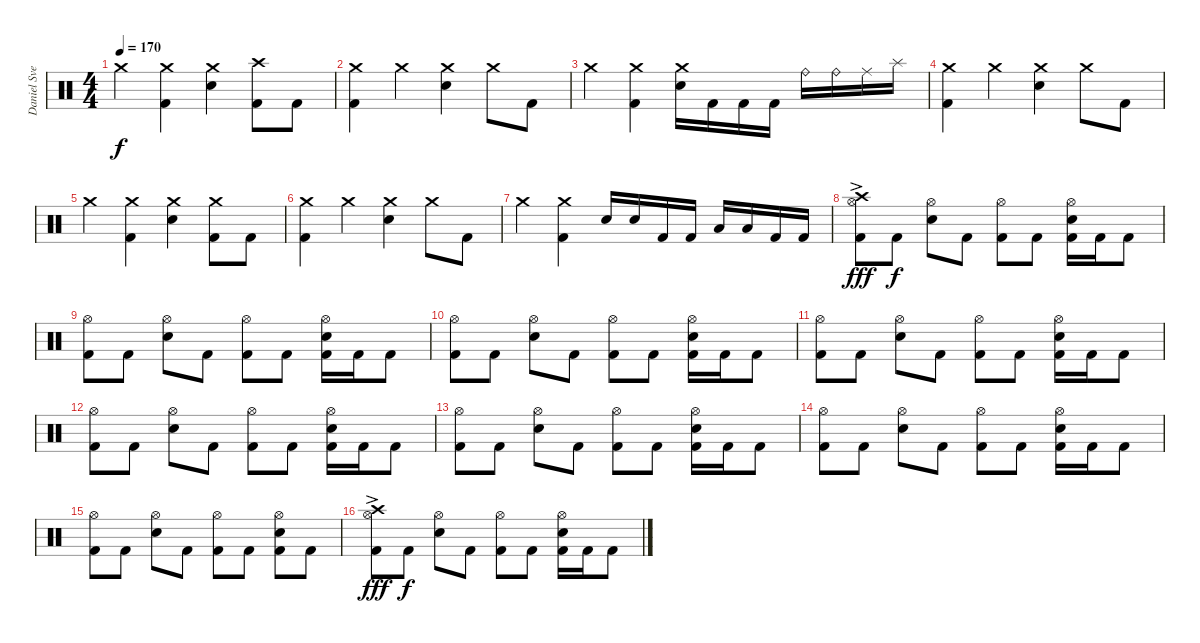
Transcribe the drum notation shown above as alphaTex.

\track ("Daniel Svensson" "Daniel Sve") {instrument percussion}
\staff {score}
\articulation defaults
\ts (4 4)
\tempo 170
\clef neutral
\ks c "Crash medium (hit)".4{dy f}
("Crash medium (hit)" "Kick (hit) 2").4 ("Crash medium (hit)" "Electric Snare (hit)").4 ("Crash high (hit)" "Kick (hit) 2").8 "Kick (hit) 2".8 |
("Crash medium (hit)" "Kick (hit) 2").4 "Crash medium (hit)".4 ("Crash medium (hit)" "Electric Snare (hit)").4 "Crash medium (hit)".8 "Kick (hit) 2".8 |
"Crash medium (hit)".4 ("Crash medium (hit)" "Kick (hit) 2").4 ("Crash medium (hit)" "Electric Snare (hit)").16 "Kick (hit) 2".16 "Kick (hit) 2".16 "Kick (hit) 2".16 "Ride (bell)".16 "Ride (bell)".16 "Ride (middle)".16 "Splash (hit)".16 |
("Crash medium (hit)" "Kick (hit) 2").4 "Crash medium (hit)".4 ("Crash medium (hit)" "Electric Snare (hit)").4 "Crash medium (hit)".8 "Kick (hit) 2".8 |
"Crash medium (hit)".4 ("Crash medium (hit)" "Kick (hit) 2").4 ("Crash medium (hit)" "Electric Snare (hit)").4 ("Crash medium (hit)" "Kick (hit) 2").8 "Kick (hit) 2".8 |
("Crash medium (hit)" "Kick (hit) 2").4 "Crash medium (hit)".4 ("Crash medium (hit)" "Electric Snare (hit)").4 "Crash medium (hit)".8 "Kick (hit) 2".8 |
"Crash medium (hit)".4 ("Crash medium (hit)" "Kick (hit) 2").4 "Electric Snare (hit)".16 "Electric Snare (hit)".16 "Kick (hit) 2".16 "Kick (hit) 2".16 "Low Floor Tom (hit)".16 "Low Floor Tom (hit)".16 "Kick (hit) 2".16 "Kick (hit) 2".16 |
("Crash high (hit)"{ac} "Hi-Hat (open)" "Kick (hit) 2").8{dy fff} "Kick (hit) 2".8{dy f} ("Hi-Hat (open)" "Electric Snare (hit)").8 "Kick (hit) 2".8 ("Hi-Hat (open)" "Kick (hit) 2").8 "Kick (hit) 2".8 ("Hi-Hat (open)" "Electric Snare (hit)" "Kick (hit) 2").16 "Kick (hit) 2".16 "Kick (hit) 2".8 |
("Hi-Hat (open)" "Kick (hit) 2").8 "Kick (hit) 2".8 ("Hi-Hat (open)" "Electric Snare (hit)").8 "Kick (hit) 2".8 ("Hi-Hat (open)" "Kick (hit) 2").8 "Kick (hit) 2".8 ("Hi-Hat (open)" "Electric Snare (hit)" "Kick (hit) 2").16 "Kick (hit) 2".16 "Kick (hit) 2".8 |
("Hi-Hat (open)" "Kick (hit) 2").8 "Kick (hit) 2".8 ("Hi-Hat (open)" "Electric Snare (hit)").8 "Kick (hit) 2".8 ("Hi-Hat (open)" "Kick (hit) 2").8 "Kick (hit) 2".8 ("Hi-Hat (open)" "Electric Snare (hit)" "Kick (hit) 2").16 "Kick (hit) 2".16 "Kick (hit) 2".8 |
("Hi-Hat (open)" "Kick (hit) 2").8 "Kick (hit) 2".8 ("Hi-Hat (open)" "Electric Snare (hit)").8 "Kick (hit) 2".8 ("Hi-Hat (open)" "Kick (hit) 2").8 "Kick (hit) 2".8 ("Hi-Hat (open)" "Electric Snare (hit)" "Kick (hit) 2").16 "Kick (hit) 2".16 "Kick (hit) 2".8 |
("Hi-Hat (open)" "Kick (hit) 2").8 "Kick (hit) 2".8 ("Hi-Hat (open)" "Electric Snare (hit)").8 "Kick (hit) 2".8 ("Hi-Hat (open)" "Kick (hit) 2").8 "Kick (hit) 2".8 ("Hi-Hat (open)" "Electric Snare (hit)" "Kick (hit) 2").16 "Kick (hit) 2".16 "Kick (hit) 2".8 |
("Hi-Hat (open)" "Kick (hit) 2").8 "Kick (hit) 2".8 ("Hi-Hat (open)" "Electric Snare (hit)").8 "Kick (hit) 2".8 ("Hi-Hat (open)" "Kick (hit) 2").8 "Kick (hit) 2".8 ("Hi-Hat (open)" "Electric Snare (hit)" "Kick (hit) 2").16 "Kick (hit) 2".16 "Kick (hit) 2".8 |
("Hi-Hat (open)" "Kick (hit) 2").8 "Kick (hit) 2".8 ("Hi-Hat (open)" "Electric Snare (hit)").8 "Kick (hit) 2".8 ("Hi-Hat (open)" "Kick (hit) 2").8 "Kick (hit) 2".8 ("Hi-Hat (open)" "Electric Snare (hit)" "Kick (hit) 2").16 "Kick (hit) 2".16 "Kick (hit) 2".8 |
("Hi-Hat (open)" "Kick (hit) 2").8 "Kick (hit) 2".8 ("Hi-Hat (open)" "Electric Snare (hit)").8 "Kick (hit) 2".8 ("Hi-Hat (open)" "Kick (hit) 2").8 "Kick (hit) 2".8 ("Hi-Hat (open)" "Electric Snare (hit)" "Kick (hit) 2").8 "Kick (hit) 2".8 |
("Crash high (hit)"{ac} "Hi-Hat (open)" "Kick (hit) 2").8{dy fff} "Kick (hit) 2".8{dy f} ("Hi-Hat (open)" "Electric Snare (hit)").8 "Kick (hit) 2".8 ("Hi-Hat (open)" "Kick (hit) 2").8 "Kick (hit) 2".8 ("Hi-Hat (open)" "Electric Snare (hit)" "Kick (hit) 2").16 "Kick (hit) 2".16 "Kick (hit) 2".8
